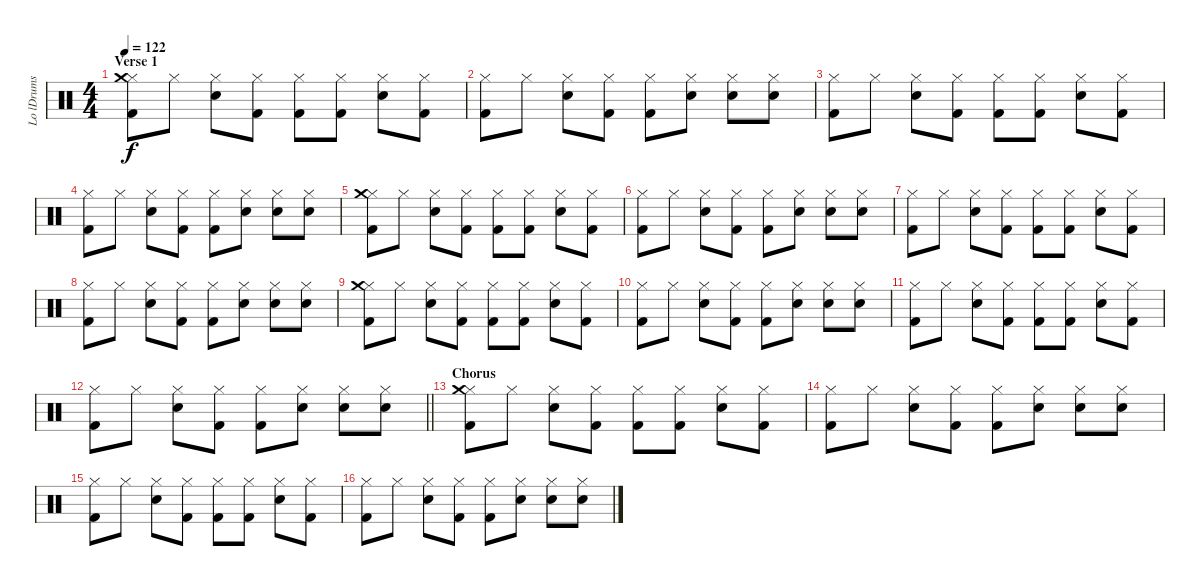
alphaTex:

\track ("Lo lDrums" "Lo lDrums") {instrument percussion}
\staff {score}
\articulation defaults
\ts (4 4)
\section ("" "Verse 1")
\tempo 122
\clef neutral
\ks c
("Hi-Hat (closed)" "Crash medium (hit)" "Kick (hit) 2").8{dy f} "Hi-Hat (closed)".8 ("Hi-Hat (closed)" "Snare (hit) 2").8 ("Hi-Hat (closed)" "Kick (hit) 2").8 ("Hi-Hat (closed)" "Kick (hit) 2").8 ("Hi-Hat (closed)" "Kick (hit) 2").8 ("Hi-Hat (closed)" "Snare (hit) 2").8 ("Hi-Hat (closed)" "Kick (hit) 2").8 |
("Kick (hit) 2" "Hi-Hat (closed)").8 "Hi-Hat (closed)".8 ("Snare (hit) 2" "Hi-Hat (closed)").8 ("Kick (hit) 2" "Hi-Hat (closed)").8 ("Kick (hit) 2" "Hi-Hat (closed)").8 ("Snare (hit) 2" "Hi-Hat (closed)").8 ("Snare (hit) 2" "Hi-Hat (closed)").8 ("Snare (hit) 2" "Hi-Hat (closed)").8 |
("Kick (hit) 2" "Hi-Hat (closed)").8 "Hi-Hat (closed)".8 ("Hi-Hat (closed)" "Snare (hit) 2").8 ("Hi-Hat (closed)" "Kick (hit) 2").8 ("Hi-Hat (closed)" "Kick (hit) 2").8 ("Hi-Hat (closed)" "Kick (hit) 2").8 ("Hi-Hat (closed)" "Snare (hit) 2").8 ("Hi-Hat (closed)" "Kick (hit) 2").8 |
("Kick (hit) 2" "Hi-Hat (closed)").8 "Hi-Hat (closed)".8 ("Snare (hit) 2" "Hi-Hat (closed)").8 ("Kick (hit) 2" "Hi-Hat (closed)").8 ("Kick (hit) 2" "Hi-Hat (closed)").8 ("Snare (hit) 2" "Hi-Hat (closed)").8 ("Snare (hit) 2" "Hi-Hat (closed)").8 ("Snare (hit) 2" "Hi-Hat (closed)").8 |
("Hi-Hat (closed)" "Crash medium (hit)" "Kick (hit) 2").8 "Hi-Hat (closed)".8 ("Hi-Hat (closed)" "Snare (hit) 2").8 ("Hi-Hat (closed)" "Kick (hit) 2").8 ("Hi-Hat (closed)" "Kick (hit) 2").8 ("Hi-Hat (closed)" "Kick (hit) 2").8 ("Hi-Hat (closed)" "Snare (hit) 2").8 ("Hi-Hat (closed)" "Kick (hit) 2").8 |
("Kick (hit) 2" "Hi-Hat (closed)").8 "Hi-Hat (closed)".8 ("Snare (hit) 2" "Hi-Hat (closed)").8 ("Kick (hit) 2" "Hi-Hat (closed)").8 ("Kick (hit) 2" "Hi-Hat (closed)").8 ("Snare (hit) 2" "Hi-Hat (closed)").8 ("Snare (hit) 2" "Hi-Hat (closed)").8 ("Snare (hit) 2" "Hi-Hat (closed)").8 |
("Kick (hit) 2" "Hi-Hat (closed)").8 "Hi-Hat (closed)".8 ("Hi-Hat (closed)" "Snare (hit) 2").8 ("Hi-Hat (closed)" "Kick (hit) 2").8 ("Hi-Hat (closed)" "Kick (hit) 2").8 ("Hi-Hat (closed)" "Kick (hit) 2").8 ("Hi-Hat (closed)" "Snare (hit) 2").8 ("Hi-Hat (closed)" "Kick (hit) 2").8 |
("Kick (hit) 2" "Hi-Hat (closed)").8 "Hi-Hat (closed)".8 ("Snare (hit) 2" "Hi-Hat (closed)").8 ("Kick (hit) 2" "Hi-Hat (closed)").8 ("Kick (hit) 2" "Hi-Hat (closed)").8 ("Snare (hit) 2" "Hi-Hat (closed)").8 ("Snare (hit) 2" "Hi-Hat (closed)").8 ("Snare (hit) 2" "Hi-Hat (closed)").8 |
("Hi-Hat (closed)" "Crash medium (hit)" "Kick (hit) 2").8 "Hi-Hat (closed)".8 ("Hi-Hat (closed)" "Snare (hit) 2").8 ("Hi-Hat (closed)" "Kick (hit) 2").8 ("Hi-Hat (closed)" "Kick (hit) 2").8 ("Hi-Hat (closed)" "Kick (hit) 2").8 ("Hi-Hat (closed)" "Snare (hit) 2").8 ("Hi-Hat (closed)" "Kick (hit) 2").8 |
("Kick (hit) 2" "Hi-Hat (closed)").8 "Hi-Hat (closed)".8 ("Snare (hit) 2" "Hi-Hat (closed)").8 ("Kick (hit) 2" "Hi-Hat (closed)").8 ("Kick (hit) 2" "Hi-Hat (closed)").8 ("Snare (hit) 2" "Hi-Hat (closed)").8 ("Snare (hit) 2" "Hi-Hat (closed)").8 ("Snare (hit) 2" "Hi-Hat (closed)").8 |
("Kick (hit) 2" "Hi-Hat (closed)").8 "Hi-Hat (closed)".8 ("Hi-Hat (closed)" "Snare (hit) 2").8 ("Hi-Hat (closed)" "Kick (hit) 2").8 ("Hi-Hat (closed)" "Kick (hit) 2").8 ("Hi-Hat (closed)" "Kick (hit) 2").8 ("Hi-Hat (closed)" "Snare (hit) 2").8 ("Hi-Hat (closed)" "Kick (hit) 2").8 |
\barLineRight lightlight
("Kick (hit) 2" "Hi-Hat (closed)").8 "Hi-Hat (closed)".8 ("Snare (hit) 2" "Hi-Hat (closed)").8 ("Kick (hit) 2" "Hi-Hat (closed)").8 ("Kick (hit) 2" "Hi-Hat (closed)").8 ("Snare (hit) 2" "Hi-Hat (closed)").8 ("Snare (hit) 2" "Hi-Hat (closed)").8 ("Snare (hit) 2" "Hi-Hat (closed)").8 |
\section ("" "Chorus")
("Hi-Hat (closed)" "Crash medium (hit)" "Kick (hit) 2").8 "Hi-Hat (closed)".8 ("Hi-Hat (closed)" "Snare (hit) 2").8 ("Hi-Hat (closed)" "Kick (hit) 2").8 ("Hi-Hat (closed)" "Kick (hit) 2").8 ("Hi-Hat (closed)" "Kick (hit) 2").8 ("Hi-Hat (closed)" "Snare (hit) 2").8 ("Hi-Hat (closed)" "Kick (hit) 2").8 |
("Kick (hit) 2" "Hi-Hat (closed)").8 "Hi-Hat (closed)".8 ("Snare (hit) 2" "Hi-Hat (closed)").8 ("Kick (hit) 2" "Hi-Hat (closed)").8 ("Kick (hit) 2" "Hi-Hat (closed)").8 ("Snare (hit) 2" "Hi-Hat (closed)").8 ("Snare (hit) 2" "Hi-Hat (closed)").8 ("Snare (hit) 2" "Hi-Hat (closed)").8 |
("Kick (hit) 2" "Hi-Hat (closed)").8 "Hi-Hat (closed)".8 ("Hi-Hat (closed)" "Snare (hit) 2").8 ("Hi-Hat (closed)" "Kick (hit) 2").8 ("Hi-Hat (closed)" "Kick (hit) 2").8 ("Hi-Hat (closed)" "Kick (hit) 2").8 ("Hi-Hat (closed)" "Snare (hit) 2").8 ("Hi-Hat (closed)" "Kick (hit) 2").8 |
("Kick (hit) 2" "Hi-Hat (closed)").8 "Hi-Hat (closed)".8 ("Snare (hit) 2" "Hi-Hat (closed)").8 ("Kick (hit) 2" "Hi-Hat (closed)").8 ("Kick (hit) 2" "Hi-Hat (closed)").8 ("Snare (hit) 2" "Hi-Hat (closed)").8 ("Snare (hit) 2" "Hi-Hat (closed)").8 ("Snare (hit) 2" "Hi-Hat (closed)").8
